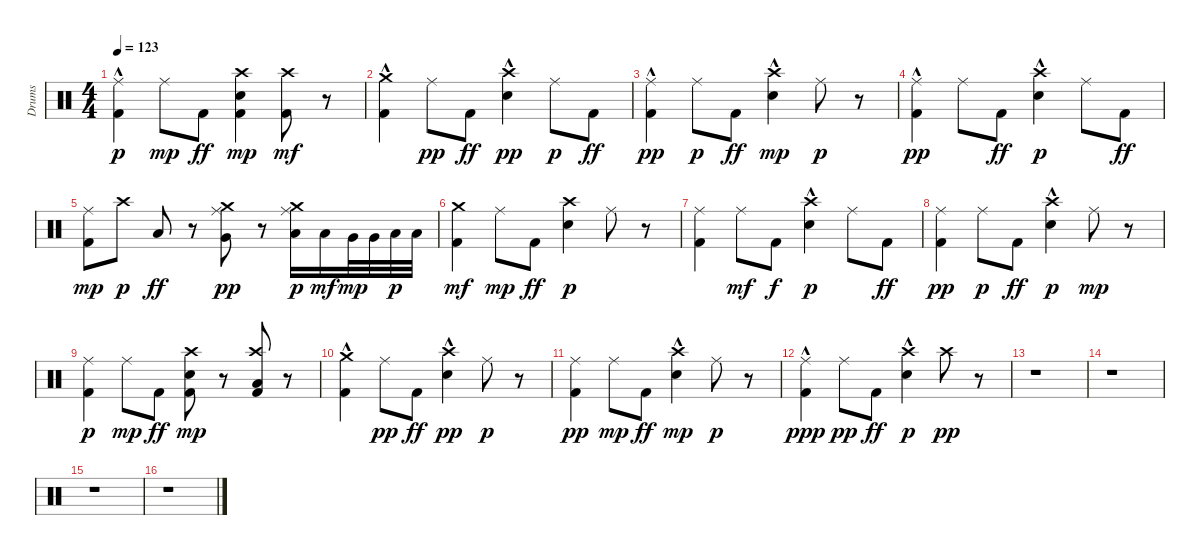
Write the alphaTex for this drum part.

\track ("Drums" "Drums") {instrument percussion}
\staff {score}
\articulation defaults
\ts (4 4)
\tempo 123
\clef neutral
\ks c
("Kick (hit) 2"{hac} "Ride (middle)").4{dy p} "Ride (middle)".8{dy mp} "Kick (hit) 2".8{dy ff} ("Kick (hit) 2" "Electric Snare (hit)" "Crash high (hit)").4{dy mp} ("Kick (hit) 2" "Crash high (hit)").8{dy mf} r.8 |
("Kick (hit) 2"{hac} "Crash medium (hit)").4 "Ride (middle)".8{dy pp} "Kick (hit) 2".8{dy ff} ("Electric Snare (hit)"{hac} "Crash high (hit)").4{dy pp} "Ride (middle)".8{dy p} "Kick (hit) 2".8{dy ff} |
("Kick (hit) 2"{hac} "Ride (middle)").4{dy pp} "Ride (middle)".8{dy p} "Kick (hit) 2".8{dy ff} ("Electric Snare (hit)"{hac} "Crash high (hit)").4{dy mp} "Ride (middle)".8{dy p} r.8 |
("Kick (hit) 2"{hac} "Ride (middle)").4{dy pp} "Ride (middle)".8 "Kick (hit) 2".8{dy ff} ("Electric Snare (hit)"{hac} "Crash high (hit)").4{dy p} "Ride (middle)".8 "Kick (hit) 2".8{dy ff} |
("Kick (hit) 2" "Ride (middle)").8{dy mp} "Crash high (hit)".8{dy p} "Low Tom (hit)".8{dy ff} r.8 ("Very Low Tom (hit)" "Ride (middle)" "Crash medium (hit)").8{dy pp} r.8 ("Low Tom (hit)" "Ride (middle)" "Crash medium (hit)").16{dy p} "Low Tom (hit)".16{dy mf} "Very Low Tom (hit)".32{dy mp} "Very Low Tom (hit)".32 "Low Floor Tom (hit)".32{dy p} "Low Floor Tom (hit)".32 |
("Kick (hit) 2" "Crash medium (hit)").4{dy mf} "Ride (middle)".8{dy mp} "Kick (hit) 2".8{dy ff} ("Electric Snare (hit)" "Crash high (hit)").4{dy p} "Ride (middle)".8 r.8 |
("Kick (hit) 2" "Ride (middle)").4 "Ride (middle)".8{dy mf} "Kick (hit) 2".8{dy f} ("Electric Snare (hit)"{hac} "Crash high (hit)").4{dy p} "Ride (middle)".8 "Kick (hit) 2".8{dy ff} |
("Kick (hit) 2" "Ride (middle)").4{dy pp} "Ride (middle)".8{dy p} "Kick (hit) 2".8{dy ff} ("Electric Snare (hit)"{hac} "Crash high (hit)").4{dy p} "Ride (middle)".8{dy mp} r.8 |
("Kick (hit) 2" "Ride (middle)").4{dy p} "Ride (middle)".8{dy mp} "Kick (hit) 2".8{dy ff} ("Electric Snare (hit)" "Kick (hit) 2" "Crash high (hit)").8{dy mp} r.8 ("Low Floor Tom (hit)" "Kick (hit) 2" "Crash high (hit)").8 r.8 |
("Kick (hit) 2"{hac} "Crash medium (hit)").4 "Ride (middle)".8{dy pp} "Kick (hit) 2".8{dy ff} ("Electric Snare (hit)"{hac} "Crash high (hit)").4{dy pp} "Ride (middle)".8{dy p} r.8 |
("Kick (hit) 2" "Ride (middle)").4{dy pp} "Ride (middle)".8{dy mp} "Kick (hit) 2".8{dy ff} ("Electric Snare (hit)"{hac} "Crash high (hit)").4{dy mp} "Ride (middle)".8{dy p} r.8 |
("Kick (hit) 2"{hac} "Ride (middle)").4{dy ppp} "Ride (middle)".8{dy pp} "Kick (hit) 2".8{dy ff} ("Electric Snare (hit)"{hac} "Crash high (hit)").4{dy p} "Crash high (hit)".8{dy pp} r.8 |
r.1 |
r.1 |
r.1 |
r.1
